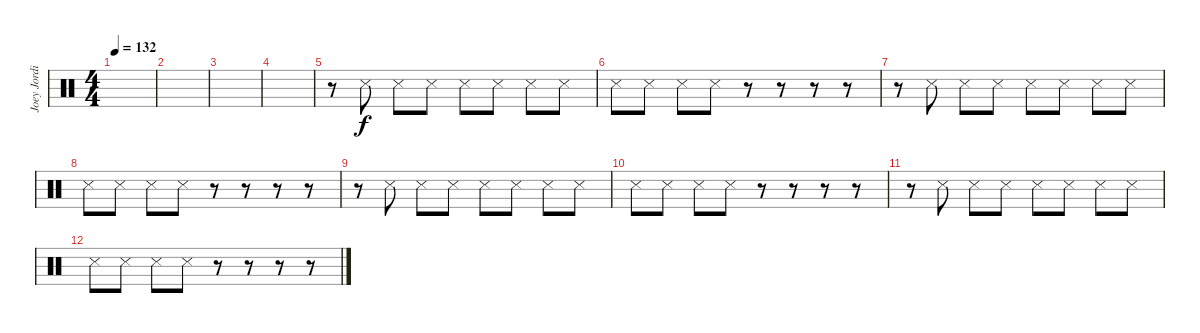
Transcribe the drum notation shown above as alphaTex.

\track ("Joey Jordison (Intro)" "Joey Jordi") {instrument percussion}
\staff {score}
\articulation defaults
\ts (4 4)
\tempo 132
\clef neutral
\ks c
|
|
|
|
r.8 "Snare (side stick) 3".8 "Snare (side stick) 3".8 "Snare (side stick) 3".8 "Snare (side stick) 3".8 "Snare (side stick) 3".8 "Snare (side stick) 3".8 "Snare (side stick) 3".8 |
"Snare (side stick) 3".8 "Snare (side stick) 3".8 "Snare (side stick) 3".8 "Snare (side stick) 3".8 r.8 r.8 r.8 r.8 |
r.8 "Snare (side stick) 3".8 "Snare (side stick) 3".8 "Snare (side stick) 3".8 "Snare (side stick) 3".8 "Snare (side stick) 3".8 "Snare (side stick) 3".8 "Snare (side stick) 3".8 |
"Snare (side stick) 3".8 "Snare (side stick) 3".8 "Snare (side stick) 3".8 "Snare (side stick) 3".8 r.8 r.8 r.8 r.8 |
r.8 "Snare (side stick) 3".8 "Snare (side stick) 3".8 "Snare (side stick) 3".8 "Snare (side stick) 3".8 "Snare (side stick) 3".8 "Snare (side stick) 3".8 "Snare (side stick) 3".8 |
"Snare (side stick) 3".8 "Snare (side stick) 3".8 "Snare (side stick) 3".8 "Snare (side stick) 3".8 r.8 r.8 r.8 r.8 |
r.8 "Snare (side stick) 3".8 "Snare (side stick) 3".8 "Snare (side stick) 3".8 "Snare (side stick) 3".8 "Snare (side stick) 3".8 "Snare (side stick) 3".8 "Snare (side stick) 3".8 |
"Snare (side stick) 3".8 "Snare (side stick) 3".8 "Snare (side stick) 3".8 "Snare (side stick) 3".8 r.8 r.8 r.8 r.8
